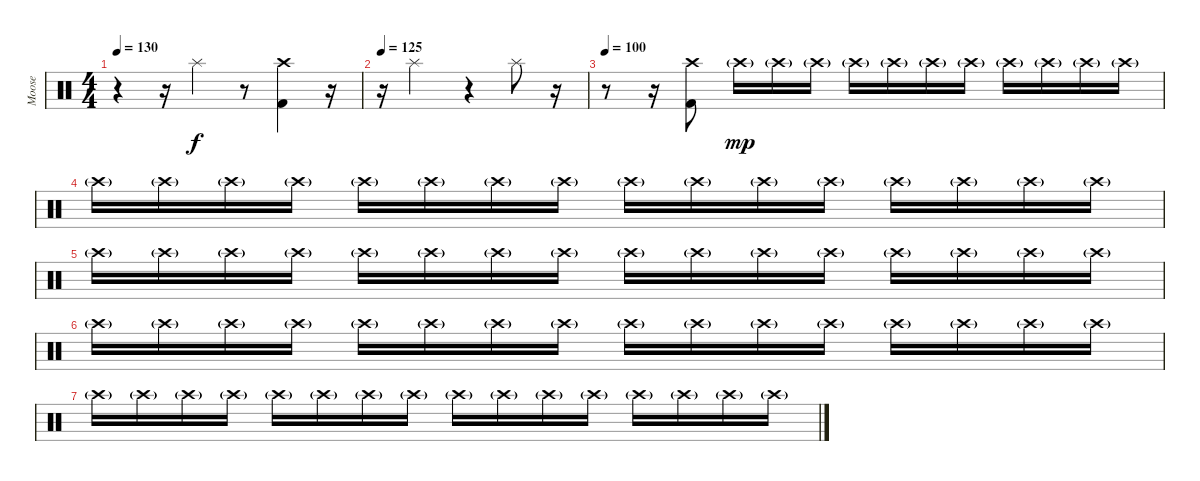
\track ("Moose" "Moose") {instrument percussion}
\staff {score}
\articulation defaults
\ts (4 4)
\tempo 130
\clef neutral
\ks c
r.4{dy f} r.16 "Splash (hit)".4 r.8 ("Crash high (hit)" "Kick (hit) 2").4 r.16 |
\tempo 125
r.16 "Splash (hit)".2 r.4 "Splash (hit)".8 r.16 |
\tempo 100
r.8 r.16 ("Crash high (hit)" "Kick (hit) 2").8 "Crash high (hit)"{g}.16{dy mp} "Crash high (hit)"{g}.16 "Crash high (hit)"{g}.16 "Crash high (hit)"{g}.16 "Crash high (hit)"{g}.16 "Crash high (hit)"{g}.16 "Crash high (hit)"{g}.16 "Crash high (hit)"{g}.16 "Crash high (hit)"{g}.16 "Crash high (hit)"{g}.16 "Crash high (hit)"{g}.16 |
"Crash high (hit)"{g}.16 "Crash high (hit)"{g}.16 "Crash high (hit)"{g}.16 "Crash high (hit)"{g}.16 "Crash high (hit)"{g}.16 "Crash high (hit)"{g}.16 "Crash high (hit)"{g}.16 "Crash high (hit)"{g}.16 "Crash high (hit)"{g}.16 "Crash high (hit)"{g}.16 "Crash high (hit)"{g}.16 "Crash high (hit)"{g}.16 "Crash high (hit)"{g}.16 "Crash high (hit)"{g}.16 "Crash high (hit)"{g}.16 "Crash high (hit)"{g}.16 |
"Crash high (hit)"{g}.16 "Crash high (hit)"{g}.16 "Crash high (hit)"{g}.16 "Crash high (hit)"{g}.16 "Crash high (hit)"{g}.16 "Crash high (hit)"{g}.16 "Crash high (hit)"{g}.16 "Crash high (hit)"{g}.16 "Crash high (hit)"{g}.16 "Crash high (hit)"{g}.16 "Crash high (hit)"{g}.16 "Crash high (hit)"{g}.16 "Crash high (hit)"{g}.16 "Crash high (hit)"{g}.16 "Crash high (hit)"{g}.16 "Crash high (hit)"{g}.16 |
"Crash high (hit)"{g}.16 "Crash high (hit)"{g}.16 "Crash high (hit)"{g}.16 "Crash high (hit)"{g}.16 "Crash high (hit)"{g}.16 "Crash high (hit)"{g}.16 "Crash high (hit)"{g}.16 "Crash high (hit)"{g}.16 "Crash high (hit)"{g}.16 "Crash high (hit)"{g}.16 "Crash high (hit)"{g}.16 "Crash high (hit)"{g}.16 "Crash high (hit)"{g}.16 "Crash high (hit)"{g}.16 "Crash high (hit)"{g}.16 "Crash high (hit)"{g}.16 |
"Crash high (hit)"{g}.16 "Crash high (hit)"{g}.16 "Crash high (hit)"{g}.16 "Crash high (hit)"{g}.16 "Crash high (hit)"{g}.16 "Crash high (hit)"{g}.16 "Crash high (hit)"{g}.16 "Crash high (hit)"{g}.16 "Crash high (hit)"{g}.16 "Crash high (hit)"{g}.16 "Crash high (hit)"{g}.16 "Crash high (hit)"{g}.16 "Crash high (hit)"{g}.16 "Crash high (hit)"{g}.16 "Crash high (hit)"{g}.16 "Crash high (hit)"{g}.16
